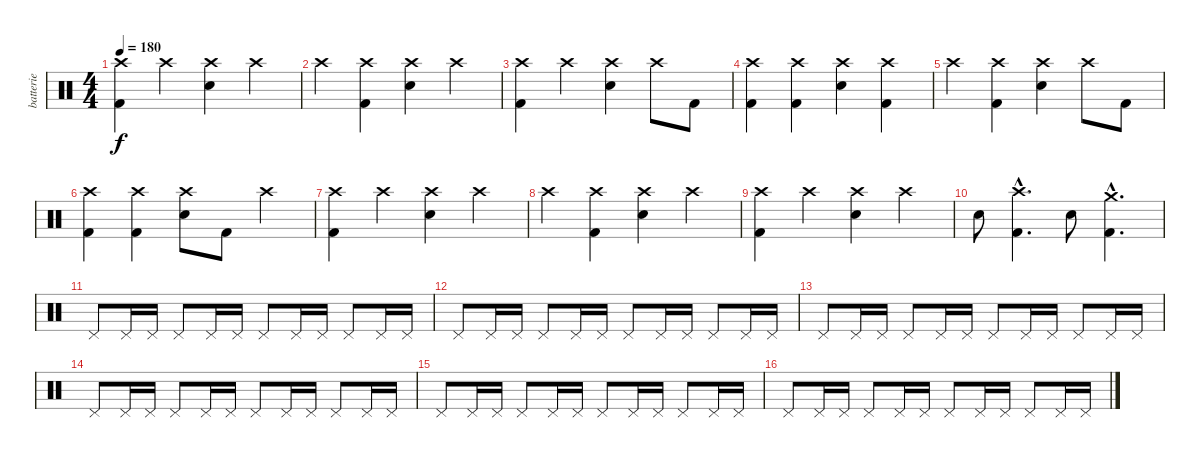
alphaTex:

\track ("batterie" "batterie") {instrument percussion}
\staff {score}
\articulation defaults
\ts (4 4)
\tempo 180
\clef neutral
\ks c
("Crash high (hit)" "Kick (hit) 2").4{dy f} "Crash high (hit)".4 ("Crash high (hit)" "Electric Snare (hit)").4 "Crash high (hit)".4 |
"Crash high (hit)".4 ("Crash high (hit)" "Kick (hit) 2").4 ("Crash high (hit)" "Electric Snare (hit)").4 "Crash high (hit)".4 |
("Crash high (hit)" "Kick (hit) 2").4 "Crash high (hit)".4 ("Crash high (hit)" "Electric Snare (hit)").4 "Crash high (hit)".8 "Kick (hit) 2".8 |
("Crash high (hit)" "Kick (hit) 2").4 ("Crash high (hit)" "Kick (hit) 2").4 ("Crash high (hit)" "Electric Snare (hit)").4 ("Crash high (hit)" "Kick (hit) 2").4 |
"Crash high (hit)".4 ("Crash high (hit)" "Kick (hit) 2").4 ("Crash high (hit)" "Electric Snare (hit)").4 "Crash high (hit)".8 "Kick (hit) 2".8 |
("Crash high (hit)" "Kick (hit) 2").4 ("Crash high (hit)" "Kick (hit) 2").4 ("Crash high (hit)" "Electric Snare (hit)").8 "Kick (hit) 2".8 "Crash high (hit)".4 |
("Crash high (hit)" "Kick (hit) 2").4 "Crash high (hit)".4 ("Crash high (hit)" "Electric Snare (hit)").4 "Crash high (hit)".4 |
"Crash high (hit)".4 ("Crash high (hit)" "Kick (hit) 2").4 ("Crash high (hit)" "Electric Snare (hit)").4 "Crash high (hit)".4 |
("Crash high (hit)" "Kick (hit) 2").4 "Crash high (hit)".4 ("Crash high (hit)" "Electric Snare (hit)").4 "Crash high (hit)".4 |
"Electric Snare (hit)".8 ("Crash high (hit)"{hac} "Kick (hit) 2"{hac}).4{d} "Electric Snare (hit)".8 ("Crash medium (hit)"{hac} "Kick (hit) 2"{hac}).4{d} |
"Pedal Hi-Hat (hit)".8 "Pedal Hi-Hat (hit)".16 "Pedal Hi-Hat (hit)".16 "Pedal Hi-Hat (hit)".8 "Pedal Hi-Hat (hit)".16 "Pedal Hi-Hat (hit)".16 "Pedal Hi-Hat (hit)".8 "Pedal Hi-Hat (hit)".16 "Pedal Hi-Hat (hit)".16 "Pedal Hi-Hat (hit)".8 "Pedal Hi-Hat (hit)".16 "Pedal Hi-Hat (hit)".16 |
"Pedal Hi-Hat (hit)".8 "Pedal Hi-Hat (hit)".16 "Pedal Hi-Hat (hit)".16 "Pedal Hi-Hat (hit)".8 "Pedal Hi-Hat (hit)".16 "Pedal Hi-Hat (hit)".16 "Pedal Hi-Hat (hit)".8 "Pedal Hi-Hat (hit)".16 "Pedal Hi-Hat (hit)".16 "Pedal Hi-Hat (hit)".8 "Pedal Hi-Hat (hit)".16 "Pedal Hi-Hat (hit)".16 |
"Pedal Hi-Hat (hit)".8 "Pedal Hi-Hat (hit)".16 "Pedal Hi-Hat (hit)".16 "Pedal Hi-Hat (hit)".8 "Pedal Hi-Hat (hit)".16 "Pedal Hi-Hat (hit)".16 "Pedal Hi-Hat (hit)".8 "Pedal Hi-Hat (hit)".16 "Pedal Hi-Hat (hit)".16 "Pedal Hi-Hat (hit)".8 "Pedal Hi-Hat (hit)".16 "Pedal Hi-Hat (hit)".16 |
"Pedal Hi-Hat (hit)".8 "Pedal Hi-Hat (hit)".16 "Pedal Hi-Hat (hit)".16 "Pedal Hi-Hat (hit)".8 "Pedal Hi-Hat (hit)".16 "Pedal Hi-Hat (hit)".16 "Pedal Hi-Hat (hit)".8 "Pedal Hi-Hat (hit)".16 "Pedal Hi-Hat (hit)".16 "Pedal Hi-Hat (hit)".8 "Pedal Hi-Hat (hit)".16 "Pedal Hi-Hat (hit)".16 |
"Pedal Hi-Hat (hit)".8 "Pedal Hi-Hat (hit)".16 "Pedal Hi-Hat (hit)".16 "Pedal Hi-Hat (hit)".8 "Pedal Hi-Hat (hit)".16 "Pedal Hi-Hat (hit)".16 "Pedal Hi-Hat (hit)".8 "Pedal Hi-Hat (hit)".16 "Pedal Hi-Hat (hit)".16 "Pedal Hi-Hat (hit)".8 "Pedal Hi-Hat (hit)".16 "Pedal Hi-Hat (hit)".16 |
"Pedal Hi-Hat (hit)".8 "Pedal Hi-Hat (hit)".16 "Pedal Hi-Hat (hit)".16 "Pedal Hi-Hat (hit)".8 "Pedal Hi-Hat (hit)".16 "Pedal Hi-Hat (hit)".16 "Pedal Hi-Hat (hit)".8 "Pedal Hi-Hat (hit)".16 "Pedal Hi-Hat (hit)".16 "Pedal Hi-Hat (hit)".8 "Pedal Hi-Hat (hit)".16 "Pedal Hi-Hat (hit)".16
